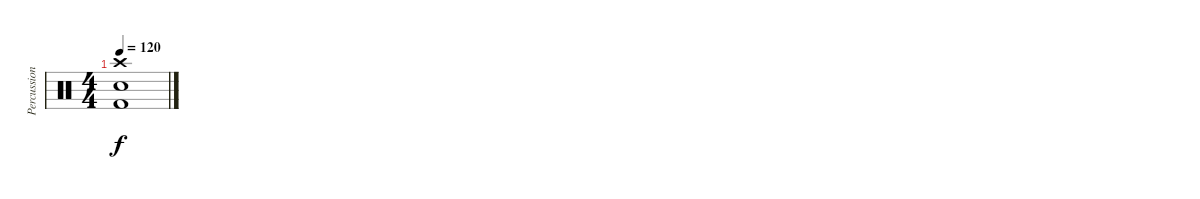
\track ("Percussion" "Percussion") {instrument percussion}
\staff {score}
\articulation defaults
\ts (4 4)
\tempo 120
\clef neutral
\ks c
("Crash high (hit)" "Snare (hit) 2" "Kick (hit) 2").1{dy f}
